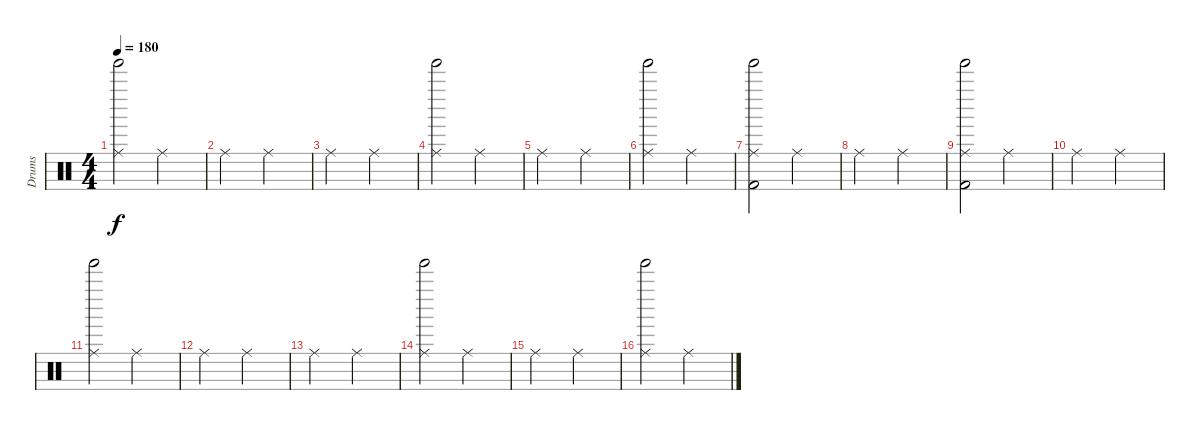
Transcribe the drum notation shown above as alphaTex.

\track ("Drums" "Drums") {instrument percussion}
\staff {score}
\articulation defaults
\ts (4 4)
\tempo 180
\clef neutral
\ks c
("Ride (middle)" "Tinkle Bell (hit)").2{dy f} "Ride (middle)".2 |
"Ride (middle)".2 "Ride (middle)".2 |
"Ride (middle)".2 "Ride (middle)".2 |
("Ride (middle)" "Tinkle Bell (hit)").2 "Ride (middle)".2 |
"Ride (middle)".2 "Ride (middle)".2 |
("Ride (middle)" "Tinkle Bell (hit)").2 "Ride (middle)".2 |
("Ride (middle)" "Kick (hit) 2" "Tinkle Bell (hit)").2 "Ride (middle)".2 |
"Ride (middle)".2 "Ride (middle)".2 |
("Ride (middle)" "Kick (hit) 2" "Tinkle Bell (hit)").2 "Ride (middle)".2 |
"Ride (middle)".2 "Ride (middle)".2 |
("Ride (middle)" "Tinkle Bell (hit)").2 "Ride (middle)".2 |
"Ride (middle)".2 "Ride (middle)".2 |
"Ride (middle)".2 "Ride (middle)".2 |
("Ride (middle)" "Tinkle Bell (hit)").2 "Ride (middle)".2 |
"Ride (middle)".2 "Ride (middle)".2 |
("Ride (middle)" "Tinkle Bell (hit)").2 "Ride (middle)".2
